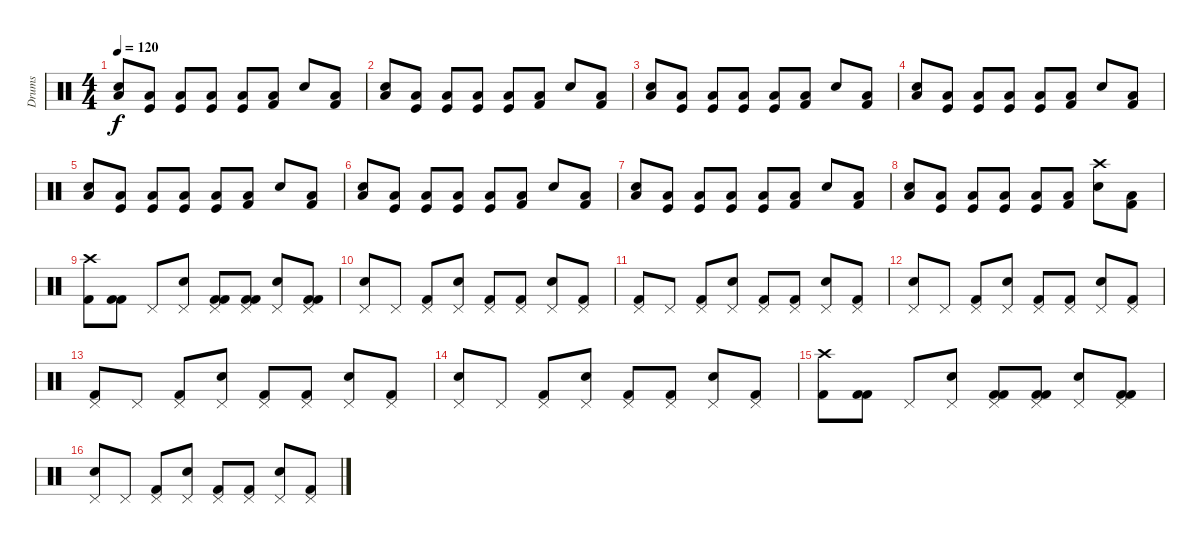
\track ("Drums" "Drums") {instrument percussion}
\staff {score}
\articulation defaults
\ts (4 4)
\tempo 120
\clef neutral
\ks c
("Low Tom (hit)" "Snare (hit) 2").8{dy f} ("Low Tom (hit)" "Kick (hit)").8 ("Low Tom (hit)" "Kick (hit)").8 ("Low Tom (hit)" "Kick (hit)").8 ("Low Tom (hit)" "Kick (hit)").8 ("Low Tom (hit)" "Kick (hit) 2").8 "Snare (hit) 2".8 ("Low Tom (hit)" "Kick (hit) 2").8 |
("Low Tom (hit)" "Snare (hit) 2").8 ("Low Tom (hit)" "Kick (hit)").8 ("Low Tom (hit)" "Kick (hit)").8 ("Low Tom (hit)" "Kick (hit)").8 ("Low Tom (hit)" "Kick (hit)").8 ("Low Tom (hit)" "Kick (hit) 2").8 "Snare (hit) 2".8 ("Low Tom (hit)" "Kick (hit) 2").8 |
("Low Tom (hit)" "Snare (hit) 2").8 ("Low Tom (hit)" "Kick (hit)").8 ("Low Tom (hit)" "Kick (hit)").8 ("Low Tom (hit)" "Kick (hit)").8 ("Low Tom (hit)" "Kick (hit)").8 ("Low Tom (hit)" "Kick (hit) 2").8 "Snare (hit) 2".8 ("Low Tom (hit)" "Kick (hit) 2").8 |
("Low Tom (hit)" "Snare (hit) 2").8 ("Low Tom (hit)" "Kick (hit)").8 ("Low Tom (hit)" "Kick (hit)").8 ("Low Tom (hit)" "Kick (hit)").8 ("Low Tom (hit)" "Kick (hit)").8 ("Low Tom (hit)" "Kick (hit) 2").8 "Snare (hit) 2".8 ("Low Tom (hit)" "Kick (hit) 2").8 |
("Low Tom (hit)" "Snare (hit) 2").8 ("Low Tom (hit)" "Kick (hit)").8 ("Low Tom (hit)" "Kick (hit)").8 ("Low Tom (hit)" "Kick (hit)").8 ("Low Tom (hit)" "Kick (hit)").8 ("Low Tom (hit)" "Kick (hit) 2").8 "Snare (hit) 2".8 ("Low Tom (hit)" "Kick (hit) 2").8 |
("Low Tom (hit)" "Snare (hit) 2").8 ("Low Tom (hit)" "Kick (hit)").8 ("Low Tom (hit)" "Kick (hit)").8 ("Low Tom (hit)" "Kick (hit)").8 ("Low Tom (hit)" "Kick (hit)").8 ("Low Tom (hit)" "Kick (hit) 2").8 "Snare (hit) 2".8 ("Low Tom (hit)" "Kick (hit) 2").8 |
("Low Tom (hit)" "Snare (hit) 2").8 ("Low Tom (hit)" "Kick (hit)").8 ("Low Tom (hit)" "Kick (hit)").8 ("Low Tom (hit)" "Kick (hit)").8 ("Low Tom (hit)" "Kick (hit)").8 ("Low Tom (hit)" "Kick (hit) 2").8 "Snare (hit) 2".8 ("Low Tom (hit)" "Kick (hit) 2").8 |
("Low Tom (hit)" "Snare (hit) 2").8 ("Low Tom (hit)" "Kick (hit)").8 ("Low Tom (hit)" "Kick (hit)").8 ("Low Tom (hit)" "Kick (hit)").8 ("Low Tom (hit)" "Kick (hit)").8 ("Low Tom (hit)" "Kick (hit) 2").8 ("Crash high (hit)" "Snare (hit) 2").8 ("Low Tom (hit)" "Kick (hit) 2").8 |
("Kick (hit) 2" "Crash high (hit)").8 ("Kick (hit) 2" "Kick (hit) 2").8 "Pedal Hi-Hat (hit)".8 ("Snare (hit) 2" "Pedal Hi-Hat (hit)").8 ("Kick (hit) 2" "Kick (hit) 2" "Pedal Hi-Hat (hit)").8 ("Kick (hit) 2" "Kick (hit) 2" "Pedal Hi-Hat (hit)").8 ("Snare (hit) 2" "Pedal Hi-Hat (hit)").8 ("Kick (hit) 2" "Kick (hit) 2" "Pedal Hi-Hat (hit)").8 |
("Snare (hit) 2" "Pedal Hi-Hat (hit)").8 "Pedal Hi-Hat (hit)".8 ("Kick (hit) 2" "Pedal Hi-Hat (hit)").8 ("Snare (hit) 2" "Pedal Hi-Hat (hit)").8 ("Kick (hit) 2" "Pedal Hi-Hat (hit)").8 ("Kick (hit) 2" "Pedal Hi-Hat (hit)").8 ("Snare (hit) 2" "Pedal Hi-Hat (hit)").8 ("Kick (hit) 2" "Pedal Hi-Hat (hit)").8 |
("Kick (hit) 2" "Pedal Hi-Hat (hit)").8 "Pedal Hi-Hat (hit)".8 ("Kick (hit) 2" "Pedal Hi-Hat (hit)").8 ("Snare (hit) 2" "Pedal Hi-Hat (hit)").8 ("Kick (hit) 2" "Pedal Hi-Hat (hit)").8 ("Kick (hit) 2" "Pedal Hi-Hat (hit)").8 ("Snare (hit) 2" "Pedal Hi-Hat (hit)").8 ("Kick (hit) 2" "Pedal Hi-Hat (hit)").8 |
("Snare (hit) 2" "Pedal Hi-Hat (hit)").8 "Pedal Hi-Hat (hit)".8 ("Kick (hit) 2" "Pedal Hi-Hat (hit)").8 ("Snare (hit) 2" "Pedal Hi-Hat (hit)").8 ("Kick (hit) 2" "Pedal Hi-Hat (hit)").8 ("Kick (hit) 2" "Pedal Hi-Hat (hit)").8 ("Snare (hit) 2" "Pedal Hi-Hat (hit)").8 ("Kick (hit) 2" "Pedal Hi-Hat (hit)").8 |
("Kick (hit) 2" "Pedal Hi-Hat (hit)").8 "Pedal Hi-Hat (hit)".8 ("Kick (hit) 2" "Pedal Hi-Hat (hit)").8 ("Snare (hit) 2" "Pedal Hi-Hat (hit)").8 ("Kick (hit) 2" "Pedal Hi-Hat (hit)").8 ("Kick (hit) 2" "Pedal Hi-Hat (hit)").8 ("Snare (hit) 2" "Pedal Hi-Hat (hit)").8 ("Kick (hit) 2" "Pedal Hi-Hat (hit)").8 |
("Snare (hit) 2" "Pedal Hi-Hat (hit)").8 "Pedal Hi-Hat (hit)".8 ("Kick (hit) 2" "Pedal Hi-Hat (hit)").8 ("Snare (hit) 2" "Pedal Hi-Hat (hit)").8 ("Kick (hit) 2" "Pedal Hi-Hat (hit)").8 ("Kick (hit) 2" "Pedal Hi-Hat (hit)").8 ("Snare (hit) 2" "Pedal Hi-Hat (hit)").8 ("Kick (hit) 2" "Pedal Hi-Hat (hit)").8 |
("Kick (hit) 2" "Crash high (hit)").8 ("Kick (hit) 2" "Kick (hit) 2").8 "Pedal Hi-Hat (hit)".8 ("Snare (hit) 2" "Pedal Hi-Hat (hit)").8 ("Kick (hit) 2" "Kick (hit) 2" "Pedal Hi-Hat (hit)").8 ("Kick (hit) 2" "Kick (hit) 2" "Pedal Hi-Hat (hit)").8 ("Snare (hit) 2" "Pedal Hi-Hat (hit)").8 ("Kick (hit) 2" "Kick (hit) 2" "Pedal Hi-Hat (hit)").8 |
("Snare (hit) 2" "Pedal Hi-Hat (hit)").8 "Pedal Hi-Hat (hit)".8 ("Kick (hit) 2" "Pedal Hi-Hat (hit)").8 ("Snare (hit) 2" "Pedal Hi-Hat (hit)").8 ("Kick (hit) 2" "Pedal Hi-Hat (hit)").8 ("Kick (hit) 2" "Pedal Hi-Hat (hit)").8 ("Snare (hit) 2" "Pedal Hi-Hat (hit)").8 ("Kick (hit) 2" "Pedal Hi-Hat (hit)").8
